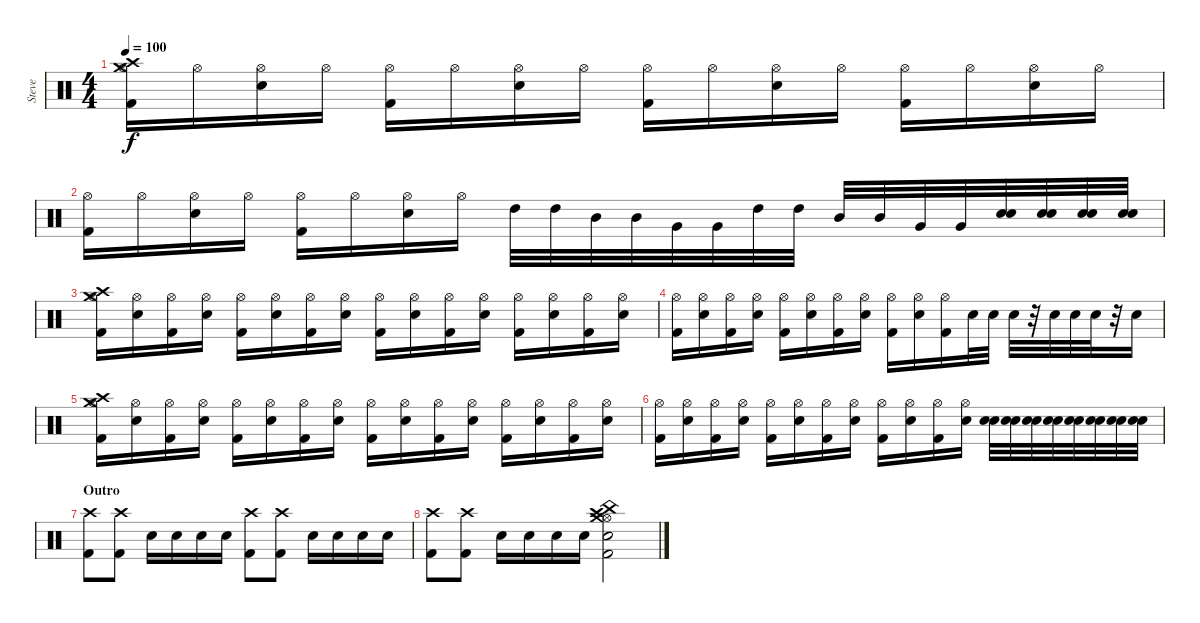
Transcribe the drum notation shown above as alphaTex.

\track ("Steve" "Steve") {instrument percussion}
\staff {score}
\articulation defaults
\ts (4 4)
\tempo 100
\clef neutral
\ks c
("Crash medium (hit)" "Crash high (hit)" "Hi-Hat (open)" "Kick (hit) 2").16{dy f} "Hi-Hat (open)".16 ("Hi-Hat (open)" "Electric Snare (hit)").16 "Hi-Hat (open)".16 ("Hi-Hat (open)" "Kick (hit) 2").16 "Hi-Hat (open)".16 ("Hi-Hat (open)" "Electric Snare (hit)").16 "Hi-Hat (open)".16 ("Hi-Hat (open)" "Kick (hit) 2").16 "Hi-Hat (open)".16 ("Hi-Hat (open)" "Electric Snare (hit)").16 "Hi-Hat (open)".16 ("Hi-Hat (open)" "Kick (hit) 2").16 "Hi-Hat (open)".16 ("Hi-Hat (open)" "Electric Snare (hit)").16 "Hi-Hat (open)".16 |
("Hi-Hat (open)" "Kick (hit) 2").16 "Hi-Hat (open)".16 ("Hi-Hat (open)" "Electric Snare (hit)").16 "Hi-Hat (open)".16 ("Hi-Hat (open)" "Kick (hit) 2").16 "Hi-Hat (open)".16 ("Hi-Hat (open)" "Electric Snare (hit)").16 "Hi-Hat (open)".16 "High Tom (hit)".32 "High Tom (hit)".32 "Mid Tom (hit)".32 "Mid Tom (hit)".32 "Very Low Tom (hit)".32 "Very Low Tom (hit)".32 "High Tom (hit)".32 "High Tom (hit)".32 "Mid Tom (hit)".32 "Mid Tom (hit)".32 "Very Low Tom (hit)".32 "Very Low Tom (hit)".32 ("Electric Snare (hit)" "Electric Snare (hit)").32 ("Electric Snare (hit)" "Electric Snare (hit)").32 ("Electric Snare (hit)" "Electric Snare (hit)").32 ("Electric Snare (hit)" "Electric Snare (hit)").32 |
("Crash medium (hit)" "Crash high (hit)" "Hi-Hat (open)" "Kick (hit) 2").16 ("Hi-Hat (open)" "Electric Snare (hit)").16 ("Hi-Hat (open)" "Kick (hit) 2").16 ("Hi-Hat (open)" "Electric Snare (hit)").16 ("Hi-Hat (open)" "Kick (hit) 2").16 ("Hi-Hat (open)" "Electric Snare (hit)").16 ("Hi-Hat (open)" "Kick (hit) 2").16 ("Hi-Hat (open)" "Electric Snare (hit)").16 ("Hi-Hat (open)" "Kick (hit) 2").16 ("Hi-Hat (open)" "Electric Snare (hit)").16 ("Hi-Hat (open)" "Kick (hit) 2").16 ("Hi-Hat (open)" "Electric Snare (hit)").16 ("Hi-Hat (open)" "Kick (hit) 2").16 ("Hi-Hat (open)" "Electric Snare (hit)").16 ("Hi-Hat (open)" "Kick (hit) 2").16 ("Hi-Hat (open)" "Electric Snare (hit)").16 |
("Hi-Hat (open)" "Kick (hit) 2").16 ("Hi-Hat (open)" "Electric Snare (hit)").16 ("Hi-Hat (open)" "Kick (hit) 2").16 ("Hi-Hat (open)" "Electric Snare (hit)").16 ("Hi-Hat (open)" "Kick (hit) 2").16 ("Hi-Hat (open)" "Electric Snare (hit)").16 ("Hi-Hat (open)" "Kick (hit) 2").16 ("Hi-Hat (open)" "Electric Snare (hit)").16 ("Hi-Hat (open)" "Kick (hit) 2").16 ("Hi-Hat (open)" "Electric Snare (hit)").16 ("Hi-Hat (open)" "Kick (hit) 2").16 "Electric Snare (hit)".32 "Electric Snare (hit)".32 "Electric Snare (hit)".32 r.32 "Electric Snare (hit)".32 "Electric Snare (hit)".32 "Electric Snare (hit)".32 r.32 "Electric Snare (hit)".16 |
("Crash medium (hit)" "Crash high (hit)" "Hi-Hat (open)" "Kick (hit) 2").16 ("Hi-Hat (open)" "Electric Snare (hit)").16 ("Hi-Hat (open)" "Kick (hit) 2").16 ("Hi-Hat (open)" "Electric Snare (hit)").16 ("Hi-Hat (open)" "Kick (hit) 2").16 ("Hi-Hat (open)" "Electric Snare (hit)").16 ("Hi-Hat (open)" "Kick (hit) 2").16 ("Hi-Hat (open)" "Electric Snare (hit)").16 ("Hi-Hat (open)" "Kick (hit) 2").16 ("Hi-Hat (open)" "Electric Snare (hit)").16 ("Hi-Hat (open)" "Kick (hit) 2").16 ("Hi-Hat (open)" "Electric Snare (hit)").16 ("Hi-Hat (open)" "Kick (hit) 2").16 ("Hi-Hat (open)" "Electric Snare (hit)").16 ("Hi-Hat (open)" "Kick (hit) 2").16 ("Hi-Hat (open)" "Electric Snare (hit)").16 |
("Hi-Hat (open)" "Kick (hit) 2").16 ("Hi-Hat (open)" "Electric Snare (hit)").16 ("Hi-Hat (open)" "Kick (hit) 2").16 ("Hi-Hat (open)" "Electric Snare (hit)").16 ("Hi-Hat (open)" "Kick (hit) 2").16 ("Hi-Hat (open)" "Electric Snare (hit)").16 ("Hi-Hat (open)" "Kick (hit) 2").16 ("Hi-Hat (open)" "Electric Snare (hit)").16 ("Hi-Hat (open)" "Kick (hit) 2").16 ("Hi-Hat (open)" "Electric Snare (hit)").16 ("Hi-Hat (open)" "Kick (hit) 2").16 ("Hi-Hat (open)" "Electric Snare (hit)").16 ("Electric Snare (hit)" "Electric Snare (hit)").32 ("Electric Snare (hit)" "Electric Snare (hit)").32 ("Electric Snare (hit)" "Electric Snare (hit)").32 ("Electric Snare (hit)" "Electric Snare (hit)").32 ("Electric Snare (hit)" "Electric Snare (hit)").32 ("Electric Snare (hit)" "Electric Snare (hit)").32 ("Electric Snare (hit)" "Electric Snare (hit)").32 ("Electric Snare (hit)" "Electric Snare (hit)").32 |
\section ("" "Outro")
("Crash high (hit)" "Kick (hit) 2").8 ("Crash high (hit)" "Kick (hit) 2").8 "Electric Snare (hit)".16 "Electric Snare (hit)".16 "Electric Snare (hit)".16 "Electric Snare (hit)".16 ("Crash high (hit)" "Kick (hit) 2").8 ("Crash high (hit)" "Kick (hit) 2").8 "Electric Snare (hit)".16 "Electric Snare (hit)".16 "Electric Snare (hit)".16 "Electric Snare (hit)".16 |
("Crash high (hit)" "Kick (hit) 2").8 ("Crash high (hit)" "Kick (hit) 2").8 "Electric Snare (hit)".16 "Electric Snare (hit)".16 "Electric Snare (hit)".16 "Electric Snare (hit)".16 ("Hi-Hat (open)" "China (hit)" "Crash medium (hit)" "Electric Snare (hit)" "Crash high (hit)" "Kick (hit) 2").2
